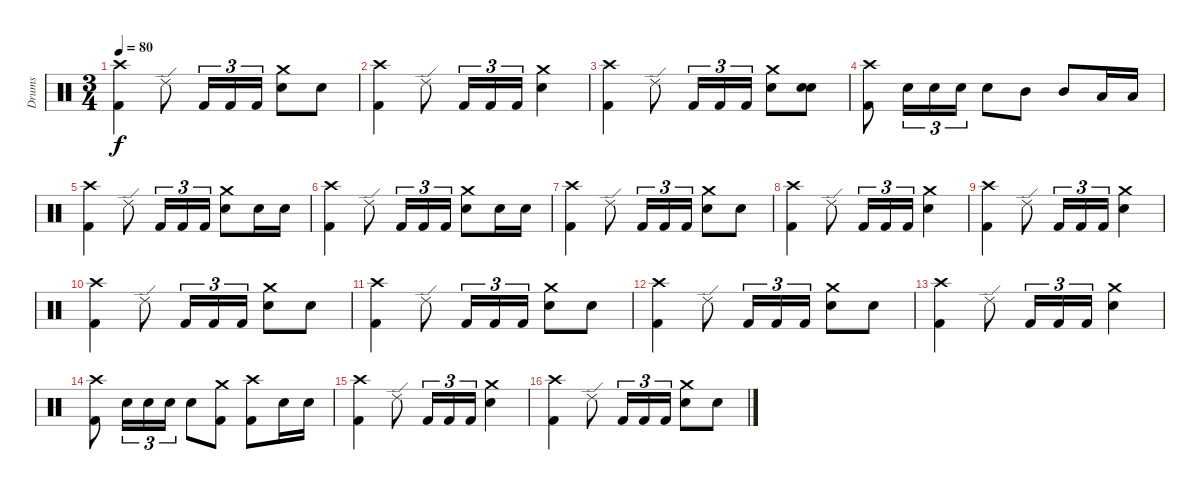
\track ("Drums" "Drums") {instrument percussion}
\staff {score}
\articulation defaults
\ts (3 4)
\tempo 80
\clef neutral
\ks c
("Crash high (hit)" "Kick (hit) 2").4{dy f} "Ride (edge) 2".8 "Kick (hit) 2".16{tu (3 2)} "Kick (hit) 2".16{tu (3 2)} "Kick (hit) 2".16{tu (3 2)} ("Crash medium (hit)" "Electric Snare (hit)").8 "Electric Snare (hit)".8 |
("Crash high (hit)" "Kick (hit) 2").4 "Ride (edge) 2".8 "Kick (hit) 2".16{tu (3 2)} "Kick (hit) 2".16{tu (3 2)} "Kick (hit) 2".16{tu (3 2)} ("Crash medium (hit)" "Electric Snare (hit)").4 |
("Crash high (hit)" "Kick (hit) 2").4 "Ride (edge) 2".8 "Kick (hit) 2".16{tu (3 2)} "Kick (hit) 2".16{tu (3 2)} "Kick (hit) 2".16{tu (3 2)} ("Crash medium (hit)" "Electric Snare (hit)").8 ("Electric Snare (hit)" "Electric Snare (hit)").8{bu 120} |
("Crash high (hit)" "Kick (hit) 2").8 "Electric Snare (hit)".16{tu (3 2)} "Electric Snare (hit)".16{tu (3 2)} "Electric Snare (hit)".16{tu (3 2)} "Electric Snare (hit)".8 "Mid Tom (hit)".8 "Mid Tom (hit)".8 "Low Tom (hit)".16 "Low Tom (hit)".16 |
("Crash high (hit)" "Kick (hit) 2").4 "Ride (edge) 2".8 "Kick (hit) 2".16{tu (3 2)} "Kick (hit) 2".16{tu (3 2)} "Kick (hit) 2".16{tu (3 2)} ("Crash medium (hit)" "Electric Snare (hit)").8 "Electric Snare (hit)".16 "Electric Snare (hit)".16 |
("Crash high (hit)" "Kick (hit) 2").4 "Ride (edge) 2".8 "Kick (hit) 2".16{tu (3 2)} "Kick (hit) 2".16{tu (3 2)} "Kick (hit) 2".16{tu (3 2)} ("Crash medium (hit)" "Electric Snare (hit)").8 "Electric Snare (hit)".16 "Electric Snare (hit)".16 |
("Crash high (hit)" "Kick (hit) 2").4 "Ride (edge) 2".8 "Kick (hit) 2".16{tu (3 2)} "Kick (hit) 2".16{tu (3 2)} "Kick (hit) 2".16{tu (3 2)} ("Crash medium (hit)" "Electric Snare (hit)").8 "Electric Snare (hit)".8 |
("Crash high (hit)" "Kick (hit) 2").4 "Ride (edge) 2".8 "Kick (hit) 2".16{tu (3 2)} "Kick (hit) 2".16{tu (3 2)} "Kick (hit) 2".16{tu (3 2)} ("Crash medium (hit)" "Electric Snare (hit)").4 |
("Crash high (hit)" "Kick (hit) 2").4 "Ride (edge) 2".8 "Kick (hit) 2".16{tu (3 2)} "Kick (hit) 2".16{tu (3 2)} "Kick (hit) 2".16{tu (3 2)} ("Crash medium (hit)" "Electric Snare (hit)").4 |
("Crash high (hit)" "Kick (hit) 2").4 "Ride (edge) 2".8 "Kick (hit) 2".16{tu (3 2)} "Kick (hit) 2".16{tu (3 2)} "Kick (hit) 2".16{tu (3 2)} ("Crash medium (hit)" "Electric Snare (hit)").8 "Electric Snare (hit)".8 |
("Crash high (hit)" "Kick (hit) 2").4 "Ride (edge) 2".8 "Kick (hit) 2".16{tu (3 2)} "Kick (hit) 2".16{tu (3 2)} "Kick (hit) 2".16{tu (3 2)} ("Crash medium (hit)" "Electric Snare (hit)").8 "Electric Snare (hit)".8 |
("Crash high (hit)" "Kick (hit) 2").4 "Ride (edge) 2".8 "Kick (hit) 2".16{tu (3 2)} "Kick (hit) 2".16{tu (3 2)} "Kick (hit) 2".16{tu (3 2)} ("Crash medium (hit)" "Electric Snare (hit)").8 "Electric Snare (hit)".8 |
("Crash high (hit)" "Kick (hit) 2").4 "Ride (edge) 2".8 "Kick (hit) 2".16{tu (3 2)} "Kick (hit) 2".16{tu (3 2)} "Kick (hit) 2".16{tu (3 2)} ("Crash medium (hit)" "Electric Snare (hit)").4 |
("Crash high (hit)" "Kick (hit) 2").8 "Electric Snare (hit)".16{tu (3 2)} "Electric Snare (hit)".16{tu (3 2)} "Electric Snare (hit)".16{tu (3 2)} "Electric Snare (hit)".8 ("Crash medium (hit)" "Kick (hit) 2").8 ("Crash high (hit)" "Kick (hit) 2").8 "Electric Snare (hit)".16 "Electric Snare (hit)".16 |
("Crash high (hit)" "Kick (hit) 2").4 "Ride (edge) 2".8 "Kick (hit) 2".16{tu (3 2)} "Kick (hit) 2".16{tu (3 2)} "Kick (hit) 2".16{tu (3 2)} ("Crash medium (hit)" "Electric Snare (hit)").4 |
("Crash high (hit)" "Kick (hit) 2").4 "Ride (edge) 2".8 "Kick (hit) 2".16{tu (3 2)} "Kick (hit) 2".16{tu (3 2)} "Kick (hit) 2".16{tu (3 2)} ("Crash medium (hit)" "Electric Snare (hit)").8 "Electric Snare (hit)".8
